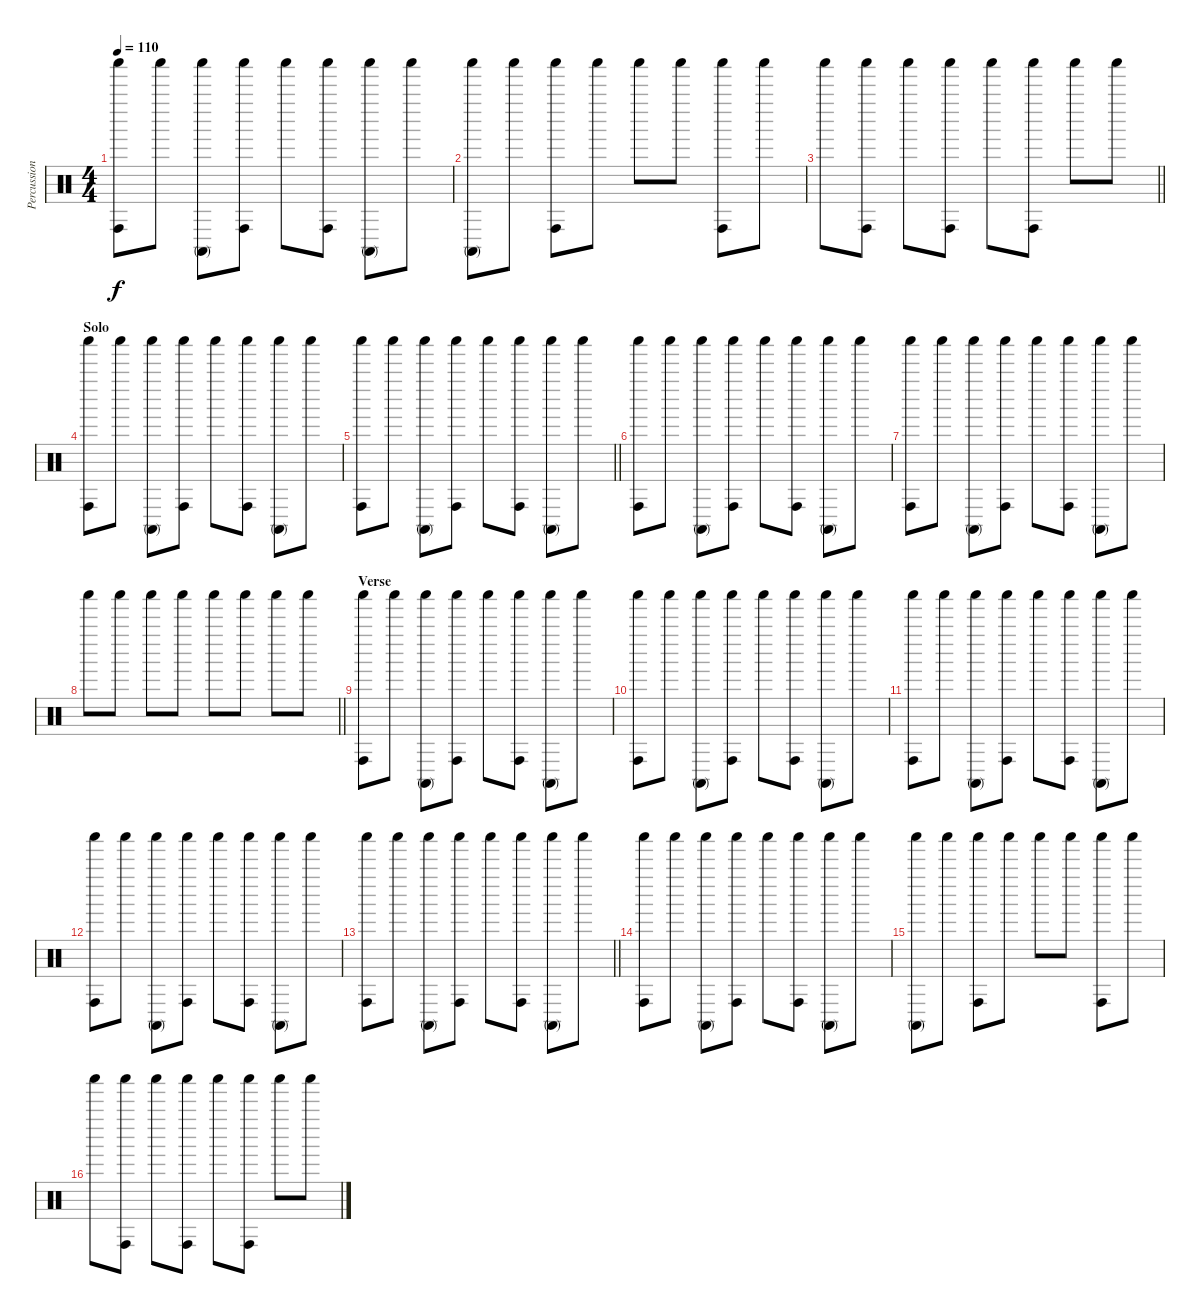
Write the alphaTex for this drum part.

\track ("Percussion" "Percussion") {instrument percussion}
\staff {score}
\articulation defaults
\ts (4 4)
\tempo 110
\clef neutral
\ks c
("Conga high (hit)" "Shaker (hit)").8{dy f} "Shaker (hit)".8 ("Conga high (mute)" "Shaker (hit)").8 ("Conga high (hit)" "Shaker (hit)").8 "Shaker (hit)".8 ("Conga high (hit)" "Shaker (hit)").8 ("Conga high (mute)" "Shaker (hit)").8 "Shaker (hit)".8 |
("Conga high (mute)" "Shaker (hit)").8 "Shaker (hit)".8 ("Conga high (hit)" "Shaker (hit)").8 "Shaker (hit)".8 "Shaker (hit)".8 "Shaker (hit)".8 ("Conga high (hit)" "Shaker (hit)").8 "Shaker (hit)".8 |
\barLineRight lightlight "Shaker (hit)".8
("Conga high (hit)" "Shaker (hit)").8 "Shaker (hit)".8 ("Conga high (hit)" "Shaker (hit)").8 "Shaker (hit)".8 ("Conga high (hit)" "Shaker (hit)").8 "Shaker (hit)".8 "Shaker (hit)".8 |
\section ("" "Solo")
("Conga high (hit)" "Shaker (hit)").8 "Shaker (hit)".8 ("Conga high (mute)" "Shaker (hit)").8 ("Conga high (hit)" "Shaker (hit)").8 "Shaker (hit)".8 ("Conga high (hit)" "Shaker (hit)").8 ("Conga high (mute)" "Shaker (hit)").8 "Shaker (hit)".8 |
\barLineRight lightlight
("Conga high (hit)" "Shaker (hit)").8 "Shaker (hit)".8 ("Conga high (mute)" "Shaker (hit)").8 ("Conga high (hit)" "Shaker (hit)").8 "Shaker (hit)".8 ("Conga high (hit)" "Shaker (hit)").8 ("Conga high (mute)" "Shaker (hit)").8 "Shaker (hit)".8 |
("Conga high (hit)" "Shaker (hit)").8 "Shaker (hit)".8 ("Conga high (mute)" "Shaker (hit)").8 ("Conga high (hit)" "Shaker (hit)").8 "Shaker (hit)".8 ("Conga high (hit)" "Shaker (hit)").8 ("Conga high (mute)" "Shaker (hit)").8 "Shaker (hit)".8 |
("Conga high (hit)" "Shaker (hit)").8 "Shaker (hit)".8 ("Conga high (mute)" "Shaker (hit)").8 ("Conga high (hit)" "Shaker (hit)").8 "Shaker (hit)".8 ("Conga high (hit)" "Shaker (hit)").8 ("Conga high (mute)" "Shaker (hit)").8 "Shaker (hit)".8 |
\barLineRight lightlight "Shaker (hit)".8 "Shaker (hit)".8 "Shaker (hit)".8 "Shaker (hit)".8 "Shaker (hit)".8 "Shaker (hit)".8 "Shaker (hit)".8 "Shaker (hit)".8
|
\section ("" "Verse")
("Conga high (hit)" "Shaker (hit)").8 "Shaker (hit)".8 ("Conga high (mute)" "Shaker (hit)").8 ("Conga high (hit)" "Shaker (hit)").8 "Shaker (hit)".8 ("Conga high (hit)" "Shaker (hit)").8 ("Conga high (mute)" "Shaker (hit)").8 "Shaker (hit)".8 |
("Conga high (hit)" "Shaker (hit)").8 "Shaker (hit)".8 ("Conga high (mute)" "Shaker (hit)").8 ("Conga high (hit)" "Shaker (hit)").8 "Shaker (hit)".8 ("Conga high (hit)" "Shaker (hit)").8 ("Conga high (mute)" "Shaker (hit)").8 "Shaker (hit)".8 |
("Conga high (hit)" "Shaker (hit)").8 "Shaker (hit)".8 ("Conga high (mute)" "Shaker (hit)").8 ("Conga high (hit)" "Shaker (hit)").8 "Shaker (hit)".8 ("Conga high (hit)" "Shaker (hit)").8 ("Conga high (mute)" "Shaker (hit)").8 "Shaker (hit)".8 |
("Conga high (hit)" "Shaker (hit)").8 "Shaker (hit)".8 ("Conga high (mute)" "Shaker (hit)").8 ("Conga high (hit)" "Shaker (hit)").8 "Shaker (hit)".8 ("Conga high (hit)" "Shaker (hit)").8 ("Conga high (mute)" "Shaker (hit)").8 "Shaker (hit)".8 |
\barLineRight lightlight
("Conga high (hit)" "Shaker (hit)").8 "Shaker (hit)".8 ("Conga high (mute)" "Shaker (hit)").8 ("Conga high (hit)" "Shaker (hit)").8 "Shaker (hit)".8 ("Conga high (hit)" "Shaker (hit)").8 ("Conga high (mute)" "Shaker (hit)").8 "Shaker (hit)".8 |
("Conga high (hit)" "Shaker (hit)").8 "Shaker (hit)".8 ("Conga high (mute)" "Shaker (hit)").8 ("Conga high (hit)" "Shaker (hit)").8 "Shaker (hit)".8 ("Conga high (hit)" "Shaker (hit)").8 ("Conga high (mute)" "Shaker (hit)").8 "Shaker (hit)".8 |
("Conga high (mute)" "Shaker (hit)").8 "Shaker (hit)".8 ("Conga high (hit)" "Shaker (hit)").8 "Shaker (hit)".8 "Shaker (hit)".8 "Shaker (hit)".8 ("Conga high (hit)" "Shaker (hit)").8 "Shaker (hit)".8 |
"Shaker (hit)".8 ("Conga high (hit)" "Shaker (hit)").8 "Shaker (hit)".8 ("Conga high (hit)" "Shaker (hit)").8 "Shaker (hit)".8 ("Conga high (hit)" "Shaker (hit)").8 "Shaker (hit)".8 "Shaker (hit)".8
